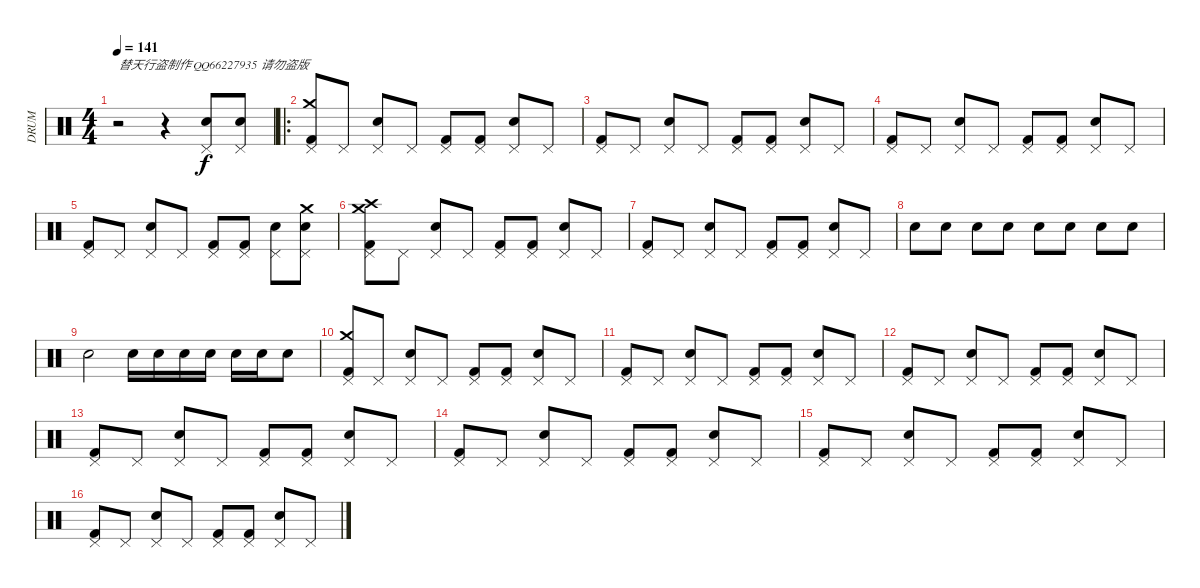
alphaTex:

\track ("DRUM" "DRUM") {instrument percussion}
\staff {score}
\articulation defaults
\ts (4 4)
\tempo 141
\clef neutral
\ks c
r.2{txt "替天行盗制作 QQ66227935 请勿盗版" dy f} r.4 ("Electric Snare (hit)" "Pedal Hi-Hat (hit)").8 ("Snare (hit) 2" "Pedal Hi-Hat (hit)").8 |
\ro
("Crash medium (hit)" "Pedal Hi-Hat (hit)" "Kick (hit) 2").8 "Pedal Hi-Hat (hit)".8 ("Pedal Hi-Hat (hit)" "Snare (hit) 2").8 "Pedal Hi-Hat (hit)".8 ("Pedal Hi-Hat (hit)" "Kick (hit) 2").8 ("Pedal Hi-Hat (hit)" "Kick (hit) 2").8 ("Pedal Hi-Hat (hit)" "Snare (hit) 2").8 "Pedal Hi-Hat (hit)".8 |
("Pedal Hi-Hat (hit)" "Kick (hit) 2").8 "Pedal Hi-Hat (hit)".8 ("Pedal Hi-Hat (hit)" "Snare (hit) 2").8 "Pedal Hi-Hat (hit)".8 ("Pedal Hi-Hat (hit)" "Kick (hit) 2").8 ("Pedal Hi-Hat (hit)" "Kick (hit) 2").8 ("Pedal Hi-Hat (hit)" "Snare (hit) 2").8 "Pedal Hi-Hat (hit)".8 |
("Pedal Hi-Hat (hit)" "Kick (hit) 2").8 "Pedal Hi-Hat (hit)".8 ("Pedal Hi-Hat (hit)" "Snare (hit) 2").8 "Pedal Hi-Hat (hit)".8 ("Pedal Hi-Hat (hit)" "Kick (hit) 2").8 ("Pedal Hi-Hat (hit)" "Kick (hit) 2").8 ("Pedal Hi-Hat (hit)" "Snare (hit) 2").8 "Pedal Hi-Hat (hit)".8 |
("Pedal Hi-Hat (hit)" "Kick (hit) 2").8 "Pedal Hi-Hat (hit)".8 ("Pedal Hi-Hat (hit)" "Snare (hit) 2").8 "Pedal Hi-Hat (hit)".8 ("Pedal Hi-Hat (hit)" "Kick (hit) 2").8 ("Pedal Hi-Hat (hit)" "Kick (hit) 2").8 ("Pedal Hi-Hat (hit)" "Snare (hit) 2").8 ("Crash medium (hit)" "Pedal Hi-Hat (hit)" "Snare (hit) 2").8 |
("Crash high (hit)" "Crash medium (hit)" "Pedal Hi-Hat (hit)" "Kick (hit) 2").8 "Pedal Hi-Hat (hit)".8 ("Pedal Hi-Hat (hit)" "Snare (hit) 2").8 "Pedal Hi-Hat (hit)".8 ("Pedal Hi-Hat (hit)" "Kick (hit) 2").8 ("Pedal Hi-Hat (hit)" "Kick (hit) 2").8 ("Pedal Hi-Hat (hit)" "Snare (hit) 2").8 "Pedal Hi-Hat (hit)".8 |
("Pedal Hi-Hat (hit)" "Kick (hit) 2").8 "Pedal Hi-Hat (hit)".8 ("Pedal Hi-Hat (hit)" "Snare (hit) 2").8 "Pedal Hi-Hat (hit)".8 ("Pedal Hi-Hat (hit)" "Kick (hit) 2").8 ("Pedal Hi-Hat (hit)" "Kick (hit) 2").8 ("Pedal Hi-Hat (hit)" "Snare (hit) 2").8 "Pedal Hi-Hat (hit)".8 |
"Electric Snare (hit)".8 "Snare (hit) 2".8 "Electric Snare (hit)".8 "Snare (hit) 2".8 "Electric Snare (hit)".8 "Snare (hit) 2".8 "Electric Snare (hit)".8 "Snare (hit) 2".8 |
"Snare (hit) 2".2 "Electric Snare (hit)".16 "Electric Snare (hit)".16 "Electric Snare (hit)".16 "Electric Snare (hit)".16 "Electric Snare (hit)".16 "Electric Snare (hit)".16 "Electric Snare (hit)".8 |
("Crash medium (hit)" "Pedal Hi-Hat (hit)" "Kick (hit) 2").8 "Pedal Hi-Hat (hit)".8 ("Snare (hit) 2" "Pedal Hi-Hat (hit)").8 "Pedal Hi-Hat (hit)".8 ("Pedal Hi-Hat (hit)" "Kick (hit) 2").8 ("Pedal Hi-Hat (hit)" "Kick (hit) 2").8 ("Snare (hit) 2" "Pedal Hi-Hat (hit)").8 "Pedal Hi-Hat (hit)".8 |
("Pedal Hi-Hat (hit)" "Kick (hit) 2").8 "Pedal Hi-Hat (hit)".8 ("Snare (hit) 2" "Pedal Hi-Hat (hit)").8 "Pedal Hi-Hat (hit)".8 ("Pedal Hi-Hat (hit)" "Kick (hit) 2").8 ("Pedal Hi-Hat (hit)" "Kick (hit) 2").8 ("Snare (hit) 2" "Pedal Hi-Hat (hit)").8 "Pedal Hi-Hat (hit)".8 |
("Pedal Hi-Hat (hit)" "Kick (hit) 2").8 "Pedal Hi-Hat (hit)".8 ("Snare (hit) 2" "Pedal Hi-Hat (hit)").8 "Pedal Hi-Hat (hit)".8 ("Pedal Hi-Hat (hit)" "Kick (hit) 2").8 ("Pedal Hi-Hat (hit)" "Kick (hit) 2").8 ("Snare (hit) 2" "Pedal Hi-Hat (hit)").8 "Pedal Hi-Hat (hit)".8 |
("Pedal Hi-Hat (hit)" "Kick (hit) 2").8 "Pedal Hi-Hat (hit)".8 ("Snare (hit) 2" "Pedal Hi-Hat (hit)").8 "Pedal Hi-Hat (hit)".8 ("Pedal Hi-Hat (hit)" "Kick (hit) 2").8 ("Pedal Hi-Hat (hit)" "Kick (hit) 2").8 ("Snare (hit) 2" "Pedal Hi-Hat (hit)").8 "Pedal Hi-Hat (hit)".8 |
("Pedal Hi-Hat (hit)" "Kick (hit) 2").8 "Pedal Hi-Hat (hit)".8 ("Snare (hit) 2" "Pedal Hi-Hat (hit)").8 "Pedal Hi-Hat (hit)".8 ("Pedal Hi-Hat (hit)" "Kick (hit) 2").8 ("Pedal Hi-Hat (hit)" "Kick (hit) 2").8 ("Snare (hit) 2" "Pedal Hi-Hat (hit)").8 "Pedal Hi-Hat (hit)".8 |
("Pedal Hi-Hat (hit)" "Kick (hit) 2").8 "Pedal Hi-Hat (hit)".8 ("Snare (hit) 2" "Pedal Hi-Hat (hit)").8 "Pedal Hi-Hat (hit)".8 ("Pedal Hi-Hat (hit)" "Kick (hit) 2").8 ("Pedal Hi-Hat (hit)" "Kick (hit) 2").8 ("Snare (hit) 2" "Pedal Hi-Hat (hit)").8 "Pedal Hi-Hat (hit)".8 |
("Pedal Hi-Hat (hit)" "Kick (hit) 2").8 "Pedal Hi-Hat (hit)".8 ("Snare (hit) 2" "Pedal Hi-Hat (hit)").8 "Pedal Hi-Hat (hit)".8 ("Pedal Hi-Hat (hit)" "Kick (hit) 2").8 ("Pedal Hi-Hat (hit)" "Kick (hit) 2").8 ("Snare (hit) 2" "Pedal Hi-Hat (hit)").8 "Pedal Hi-Hat (hit)".8
